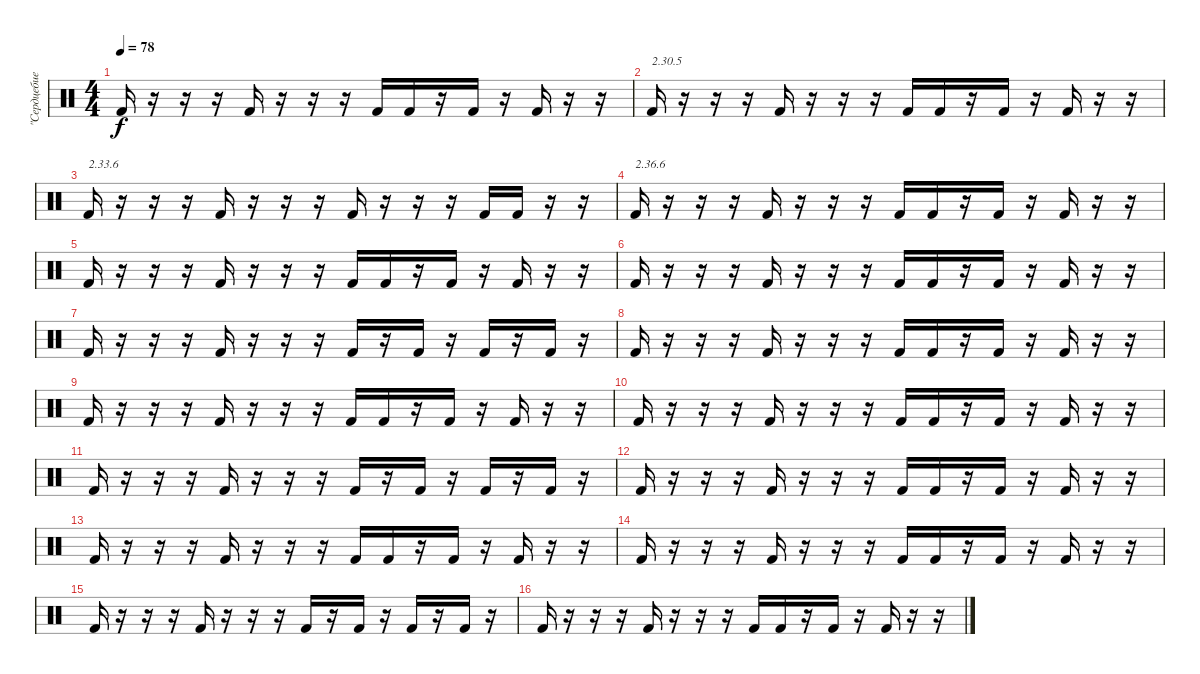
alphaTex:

\track ("\"Сердцебиение\" песни" "\"Сердцебие") {instrument percussion}
\staff {score}
\articulation defaults
\ts (4 4)
\tempo 78
\clef neutral
\ks c "Kick (hit) 2".16{dy f}
r.16 r.16 r.16 "Kick (hit) 2".16 r.16 r.16 r.16 "Kick (hit) 2".16 "Kick (hit) 2".16 r.16 "Kick (hit) 2".16 r.16 "Kick (hit) 2".16 r.16 r.16 |
"Kick (hit) 2".16{txt "2.30.5"} r.16 r.16 r.16 "Kick (hit) 2".16 r.16 r.16 r.16 "Kick (hit) 2".16 "Kick (hit) 2".16 r.16 "Kick (hit) 2".16 r.16 "Kick (hit) 2".16 r.16 r.16 |
"Kick (hit) 2".16{txt "2.33.6"} r.16 r.16 r.16 "Kick (hit) 2".16 r.16 r.16 r.16 "Kick (hit) 2".16 r.16 r.16 r.16 "Kick (hit) 2".16 "Kick (hit) 2".16 r.16 r.16 |
"Kick (hit) 2".16{txt "2.36.6"} r.16 r.16 r.16 "Kick (hit) 2".16 r.16 r.16 r.16 "Kick (hit) 2".16 "Kick (hit) 2".16 r.16 "Kick (hit) 2".16 r.16 "Kick (hit) 2".16 r.16 r.16 |
"Kick (hit) 2".16 r.16 r.16 r.16 "Kick (hit) 2".16 r.16 r.16 r.16 "Kick (hit) 2".16 "Kick (hit) 2".16 r.16 "Kick (hit) 2".16 r.16 "Kick (hit) 2".16 r.16 r.16 |
"Kick (hit) 2".16 r.16 r.16 r.16 "Kick (hit) 2".16 r.16 r.16 r.16 "Kick (hit) 2".16 "Kick (hit) 2".16 r.16 "Kick (hit) 2".16 r.16 "Kick (hit) 2".16 r.16 r.16 |
"Kick (hit) 2".16 r.16 r.16 r.16 "Kick (hit) 2".16 r.16 r.16 r.16 "Kick (hit) 2".16 r.16 "Kick (hit) 2".16 r.16 "Kick (hit) 2".16 r.16 "Kick (hit) 2".16 r.16 |
"Kick (hit) 2".16 r.16 r.16 r.16 "Kick (hit) 2".16 r.16 r.16 r.16 "Kick (hit) 2".16 "Kick (hit) 2".16 r.16 "Kick (hit) 2".16 r.16 "Kick (hit) 2".16 r.16 r.16 |
"Kick (hit) 2".16 r.16 r.16 r.16 "Kick (hit) 2".16 r.16 r.16 r.16 "Kick (hit) 2".16 "Kick (hit) 2".16 r.16 "Kick (hit) 2".16 r.16 "Kick (hit) 2".16 r.16 r.16 |
"Kick (hit) 2".16 r.16 r.16 r.16 "Kick (hit) 2".16 r.16 r.16 r.16 "Kick (hit) 2".16 "Kick (hit) 2".16 r.16 "Kick (hit) 2".16 r.16 "Kick (hit) 2".16 r.16 r.16 |
"Kick (hit) 2".16 r.16 r.16 r.16 "Kick (hit) 2".16 r.16 r.16 r.16 "Kick (hit) 2".16 r.16 "Kick (hit) 2".16 r.16 "Kick (hit) 2".16 r.16 "Kick (hit) 2".16 r.16 |
"Kick (hit) 2".16 r.16 r.16 r.16 "Kick (hit) 2".16 r.16 r.16 r.16 "Kick (hit) 2".16 "Kick (hit) 2".16 r.16 "Kick (hit) 2".16 r.16 "Kick (hit) 2".16 r.16 r.16 |
"Kick (hit) 2".16 r.16 r.16 r.16 "Kick (hit) 2".16 r.16 r.16 r.16 "Kick (hit) 2".16 "Kick (hit) 2".16 r.16 "Kick (hit) 2".16 r.16 "Kick (hit) 2".16 r.16 r.16 |
"Kick (hit) 2".16 r.16 r.16 r.16 "Kick (hit) 2".16 r.16 r.16 r.16 "Kick (hit) 2".16 "Kick (hit) 2".16 r.16 "Kick (hit) 2".16 r.16 "Kick (hit) 2".16 r.16 r.16 |
"Kick (hit) 2".16 r.16 r.16 r.16 "Kick (hit) 2".16 r.16 r.16 r.16 "Kick (hit) 2".16 r.16 "Kick (hit) 2".16 r.16 "Kick (hit) 2".16 r.16 "Kick (hit) 2".16 r.16 |
"Kick (hit) 2".16 r.16 r.16 r.16 "Kick (hit) 2".16 r.16 r.16 r.16 "Kick (hit) 2".16 "Kick (hit) 2".16 r.16 "Kick (hit) 2".16 r.16 "Kick (hit) 2".16 r.16 r.16
